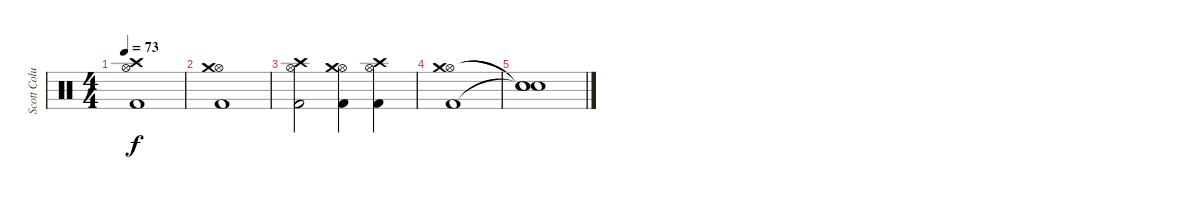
\track ("Scott Columbus" "Scott Colu") {instrument percussion}
\staff {score}
\articulation defaults
\ts (4 4)
\tempo 73
\clef neutral
\ks c
("Kick (hit) 2" "Hi-Hat (open)" "Crash high (hit)").1{dy f} |
("Kick (hit) 2" "Hi-Hat (open)" "Crash medium (hit)").1 |
("Kick (hit) 2" "Hi-Hat (open)" "Crash high (hit)").2 ("Kick (hit) 2" "Hi-Hat (open)" "Crash medium (hit)").4 ("Kick (hit) 2" "Hi-Hat (open)" "Crash high (hit)").4 |
("Kick (hit) 2" "Hi-Hat (open)" "Crash medium (hit)").1 |
("Snare (hit)"{t} "Snare (hit)"{t} "Snare (hit)"{t}).1
